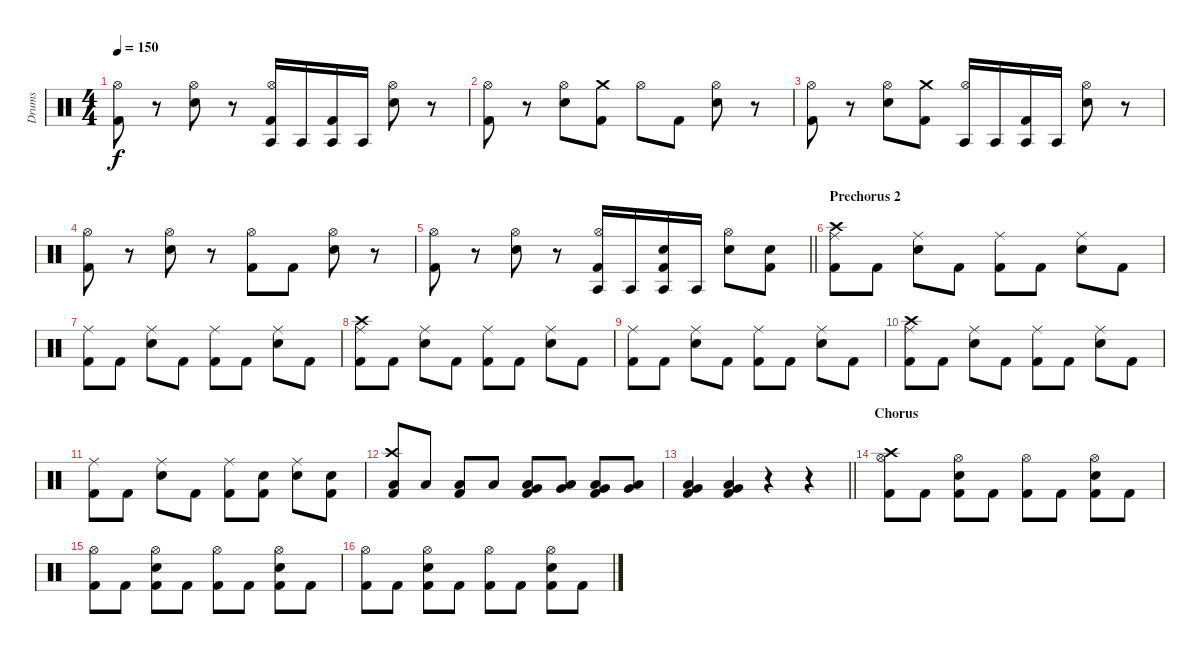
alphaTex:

\track ("Drums" "Drums") {instrument percussion}
\staff {score}
\articulation defaults
\ts (4 4)
\tempo 150
\clef neutral
\ks c
("Hi-Hat (open)" "Kick (hit) 2").8{dy f} r.8 ("Hi-Hat (open)" "Snare (hit) 2").8 r.8 ("Agogo tow (hit)" "Hi-Hat (open)" "Kick (hit) 2").16 "Agogo tow (hit)".16 ("Agogo tow (hit)" "Kick (hit) 2").16 "Agogo tow (hit)".16 ("Hi-Hat (open)" "Snare (hit) 2").8 r.8 |
("Hi-Hat (open)" "Kick (hit) 2").8 r.8 ("Hi-Hat (open)" "Snare (hit) 2").8 ("Crash medium (hit)" "Kick (hit) 2").8 "Hi-Hat (open)".8 "Kick (hit) 2".8 ("Hi-Hat (open)" "Snare (hit) 2").8 r.8 |
("Hi-Hat (open)" "Kick (hit) 2").8 r.8 ("Hi-Hat (open)" "Snare (hit) 2").8 ("Crash medium (hit)" "Kick (hit) 2").8 ("Agogo tow (hit)" "Hi-Hat (open)").16 "Agogo tow (hit)".16 ("Agogo tow (hit)" "Kick (hit) 2").16 "Agogo tow (hit)".16 ("Hi-Hat (open)" "Snare (hit) 2").8 r.8 |
("Hi-Hat (open)" "Kick (hit) 2").8 r.8 ("Hi-Hat (open)" "Snare (hit) 2").8 r.8 ("Hi-Hat (open)" "Kick (hit) 2").8 "Kick (hit) 2".8 ("Hi-Hat (open)" "Snare (hit) 2").8 r.8 |
\barLineRight lightlight
("Hi-Hat (open)" "Kick (hit) 2").8 r.8 ("Hi-Hat (open)" "Snare (hit) 2").8 r.8 ("Agogo tow (hit)" "Hi-Hat (open)" "Kick (hit) 2").16 "Agogo tow (hit)".16 ("Agogo tow (hit)" "Snare (hit) 2" "Kick (hit) 2").16 "Agogo tow (hit)".16 ("Hi-Hat (open)" "Snare (hit) 2").8 ("Snare (hit) 2" "Kick (hit) 2").8 |
\section ("" "Prechorus 2")
("Crash high (hit)" "Ride (middle)" "Kick (hit) 2").8 "Kick (hit) 2".8 ("Ride (middle)" "Snare (hit) 2").8 "Kick (hit) 2".8 ("Ride (middle)" "Kick (hit) 2").8 "Kick (hit) 2".8 ("Ride (middle)" "Snare (hit) 2").8 "Kick (hit) 2".8 |
("Ride (middle)" "Kick (hit) 2").8 "Kick (hit) 2".8 ("Ride (middle)" "Snare (hit) 2").8 "Kick (hit) 2".8 ("Ride (middle)" "Kick (hit) 2").8 "Kick (hit) 2".8 ("Ride (middle)" "Snare (hit) 2").8 "Kick (hit) 2".8 |
("Crash high (hit)" "Ride (middle)" "Kick (hit) 2").8 "Kick (hit) 2".8 ("Ride (middle)" "Snare (hit) 2").8 "Kick (hit) 2".8 ("Ride (middle)" "Kick (hit) 2").8 "Kick (hit) 2".8 ("Ride (middle)" "Snare (hit) 2").8 "Kick (hit) 2".8 |
("Ride (middle)" "Kick (hit) 2").8 "Kick (hit) 2".8 ("Ride (middle)" "Snare (hit) 2").8 "Kick (hit) 2".8 ("Ride (middle)" "Kick (hit) 2").8 "Kick (hit) 2".8 ("Ride (middle)" "Snare (hit) 2").8 "Kick (hit) 2".8 |
("Crash high (hit)" "Ride (middle)" "Kick (hit) 2").8 "Kick (hit) 2".8 ("Ride (middle)" "Snare (hit) 2").8 "Kick (hit) 2".8 ("Ride (middle)" "Kick (hit) 2").8 "Kick (hit) 2".8 ("Ride (middle)" "Snare (hit) 2").8 "Kick (hit) 2".8 |
("Ride (middle)" "Kick (hit) 2").8 "Kick (hit) 2".8 ("Ride (middle)" "Snare (hit) 2").8 "Kick (hit) 2".8 ("Ride (middle)" "Kick (hit) 2").8 ("Snare (hit) 2" "Kick (hit) 2").8 ("Ride (middle)" "Snare (hit) 2").8 ("Snare (hit) 2" "Kick (hit) 2").8 |
("Crash high (hit)" "Low Floor Tom (hit)" "Kick (hit) 2").8 "Low Floor Tom (hit)".8 ("Low Floor Tom (hit)" "Kick (hit) 2").8 "Low Floor Tom (hit)".8 ("Very Low Tom (hit)" "Low Floor Tom (hit)" "Kick (hit) 2").8 ("Very Low Tom (hit)" "Low Floor Tom (hit)").8 ("Very Low Tom (hit)" "Low Floor Tom (hit)" "Kick (hit) 2").8 ("Very Low Tom (hit)" "Low Floor Tom (hit)").8 |
\barLineRight lightlight
("Very Low Tom (hit)" "Low Floor Tom (hit)" "Kick (hit) 2").4 ("Very Low Tom (hit)" "Low Floor Tom (hit)" "Kick (hit) 2").4 r.4 r.4 |
\section ("" "Chorus")
("Crash high (hit)" "Hi-Hat (open)" "Kick (hit) 2").8 "Kick (hit) 2".8 ("Hi-Hat (open)" "Snare (hit) 2" "Kick (hit) 2").8 "Kick (hit) 2".8 ("Hi-Hat (open)" "Kick (hit) 2").8 "Kick (hit) 2".8 ("Hi-Hat (open)" "Snare (hit) 2" "Kick (hit) 2").8 "Kick (hit) 2".8 |
("Hi-Hat (open)" "Kick (hit) 2").8 "Kick (hit) 2".8 ("Hi-Hat (open)" "Snare (hit) 2" "Kick (hit) 2").8 "Kick (hit) 2".8 ("Hi-Hat (open)" "Kick (hit) 2").8 "Kick (hit) 2".8 ("Hi-Hat (open)" "Snare (hit) 2" "Kick (hit) 2").8 "Kick (hit) 2".8 |
("Hi-Hat (open)" "Kick (hit) 2").8 "Kick (hit) 2".8 ("Hi-Hat (open)" "Snare (hit) 2" "Kick (hit) 2").8 "Kick (hit) 2".8 ("Hi-Hat (open)" "Kick (hit) 2").8 "Kick (hit) 2".8 ("Hi-Hat (open)" "Snare (hit) 2" "Kick (hit) 2").8 "Kick (hit) 2".8
